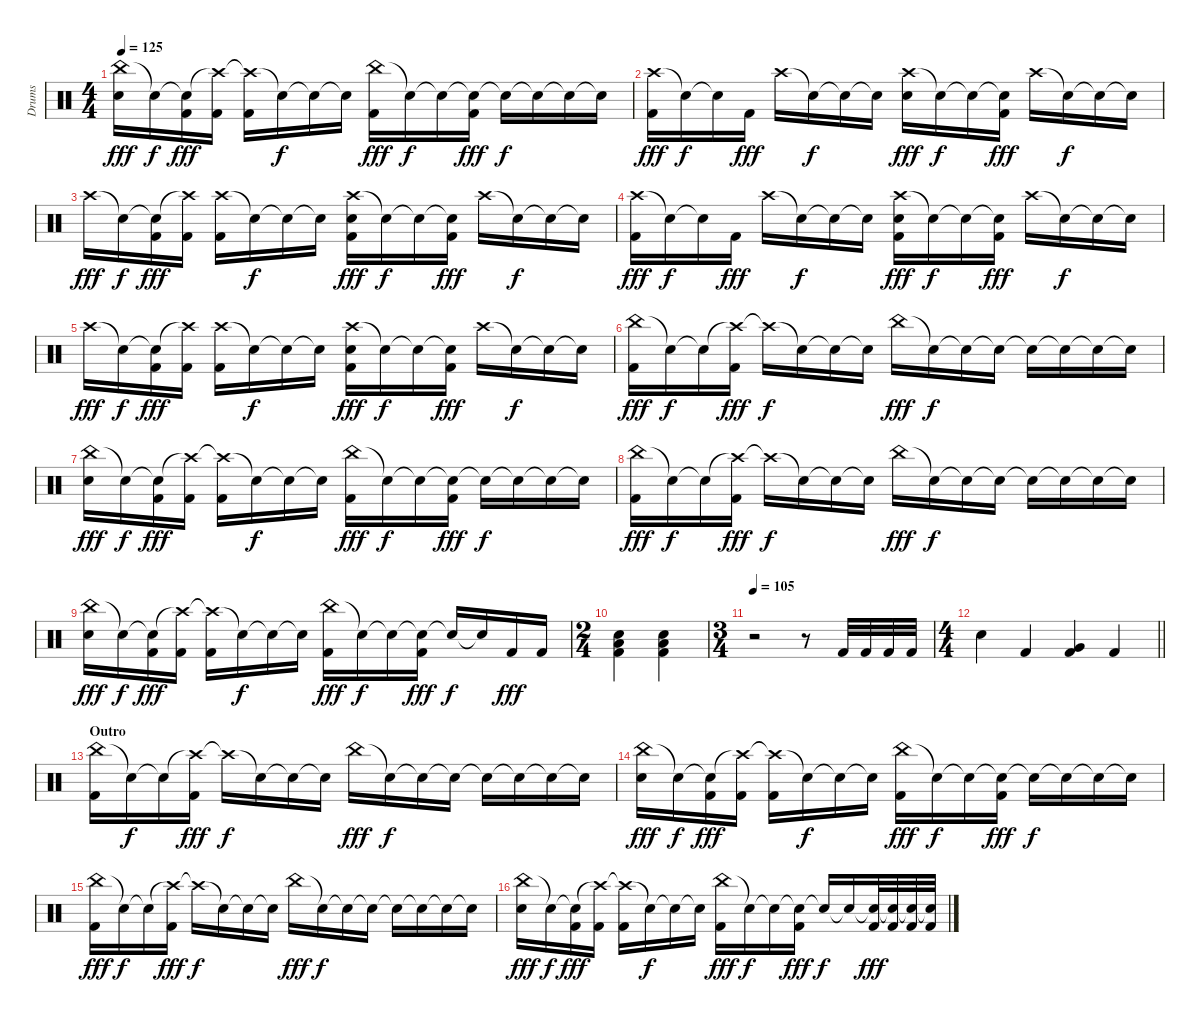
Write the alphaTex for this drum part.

\track ("Drums" "Drums") {instrument percussion}
\staff {score}
\articulation defaults
\ts (4 4)
\tempo 125
\clef neutral
\ks c
("China (hit)" "Electric Snare (hit)").16{dy fff} "Snare (hit)"{t}.16{dy f} ("Snare (hit)"{t} "Kick (hit) 2").16{dy fff} ("Crash high (hit)"{t} "Kick (hit) 2").16 ("Crash high (hit)"{t} "Kick (hit) 2").16 "Snare (hit)"{t}.16{dy f} "Snare (hit)"{t}.16 "Snare (hit)"{t}.16 ("China (hit)" "Kick (hit) 2").16{dy fff} "Snare (hit)"{t}.16{dy f} "Snare (hit)"{t}.16 ("Snare (hit)"{t} "Kick (hit) 2").16{dy fff} "Snare (hit)"{t}.16{dy f} "Snare (hit)"{t}.16 "Snare (hit)"{t}.16 "Snare (hit)"{t}.16 |
("Crash high (hit)" "Kick (hit) 2").16{dy fff} "Snare (hit)"{t}.16{dy f} "Snare (hit)"{t}.16 "Kick (hit) 2".16{dy fff} "Crash high (hit)".16 "Snare (hit)"{t}.16{dy f} "Snare (hit)"{t}.16 "Snare (hit)"{t}.16 ("Crash high (hit)" "Electric Snare (hit)").16{dy fff} "Snare (hit)"{t}.16{dy f} "Snare (hit)"{t}.16 ("Snare (hit)"{t} "Kick (hit) 2").16{dy fff} "Crash high (hit)".16 "Snare (hit)"{t}.16{dy f} "Snare (hit)"{t}.16 "Snare (hit)"{t}.16 |
"Crash high (hit)".16{dy fff} "Snare (hit)"{t}.16{dy f} ("Snare (hit)"{t} "Kick (hit) 2").16{dy fff} ("Crash high (hit)"{t} "Kick (hit) 2").16 ("Crash high (hit)" "Kick (hit) 2").16 "Snare (hit)"{t}.16{dy f} "Snare (hit)"{t}.16 "Snare (hit)"{t}.16 ("Crash high (hit)" "Electric Snare (hit)" "Kick (hit) 2").16{dy fff} "Snare (hit)"{t}.16{dy f} "Snare (hit)"{t}.16 ("Snare (hit)"{t} "Kick (hit) 2").16{dy fff} "Crash high (hit)".16 "Snare (hit)"{t}.16{dy f} "Snare (hit)"{t}.16 "Snare (hit)"{t}.16 |
("Crash high (hit)" "Kick (hit) 2").16{dy fff} "Snare (hit)"{t}.16{dy f} "Snare (hit)"{t}.16 "Kick (hit) 2".16{dy fff} "Crash high (hit)".16 "Snare (hit)"{t}.16{dy f} "Snare (hit)"{t}.16 "Snare (hit)"{t}.16 ("Crash high (hit)" "Electric Snare (hit)" "Kick (hit) 2").16{dy fff} "Snare (hit)"{t}.16{dy f} "Snare (hit)"{t}.16 ("Snare (hit)"{t} "Kick (hit) 2").16{dy fff} "Crash high (hit)".16 "Snare (hit)"{t}.16{dy f} "Snare (hit)"{t}.16 "Snare (hit)"{t}.16 |
"Crash high (hit)".16{dy fff} "Snare (hit)"{t}.16{dy f} ("Snare (hit)"{t} "Kick (hit) 2").16{dy fff} ("Crash high (hit)"{t} "Kick (hit) 2").16 ("Crash high (hit)" "Kick (hit) 2").16 "Snare (hit)"{t}.16{dy f} "Snare (hit)"{t}.16 "Snare (hit)"{t}.16 ("Crash high (hit)" "Electric Snare (hit)" "Kick (hit) 2").16{dy fff} "Snare (hit)"{t}.16{dy f} "Snare (hit)"{t}.16 ("Snare (hit)"{t} "Kick (hit) 2").16{dy fff} "Crash high (hit)".16 "Snare (hit)"{t}.16{dy f} "Snare (hit)"{t}.16 "Snare (hit)"{t}.16 |
("China (hit)" "Kick (hit) 2").16{dy fff} "Snare (hit)"{t}.16{dy f} "Snare (hit)"{t}.16 ("Crash high (hit)"{t} "Kick (hit) 2").16{dy fff} "Crash high (hit)"{t}.16{dy f} "Snare (hit)"{t}.16 "Snare (hit)"{t}.16 "Snare (hit)"{t}.16 "China (hit)".16{dy fff} "Snare (hit)"{t}.16{dy f} "Snare (hit)"{t}.16 "Snare (hit)"{t}.16 "Snare (hit)"{t}.16 "Snare (hit)"{t}.16 "Snare (hit)"{t}.16 "Snare (hit)"{t}.16 |
("China (hit)" "Electric Snare (hit)").16{dy fff} "Snare (hit)"{t}.16{dy f} ("Snare (hit)"{t} "Kick (hit) 2").16{dy fff} ("Crash high (hit)"{t} "Kick (hit) 2").16 ("Crash high (hit)"{t} "Kick (hit) 2").16 "Snare (hit)"{t}.16{dy f} "Snare (hit)"{t}.16 "Snare (hit)"{t}.16 ("China (hit)" "Kick (hit) 2").16{dy fff} "Snare (hit)"{t}.16{dy f} "Snare (hit)"{t}.16 ("Snare (hit)"{t} "Kick (hit) 2").16{dy fff} "Snare (hit)"{t}.16{dy f} "Snare (hit)"{t}.16 "Snare (hit)"{t}.16 "Snare (hit)"{t}.16 |
("China (hit)" "Kick (hit) 2").16{dy fff} "Snare (hit)"{t}.16{dy f} "Snare (hit)"{t}.16 ("Crash high (hit)"{t} "Kick (hit) 2").16{dy fff} "Crash high (hit)"{t}.16{dy f} "Snare (hit)"{t}.16 "Snare (hit)"{t}.16 "Snare (hit)"{t}.16 "China (hit)".16{dy fff} "Snare (hit)"{t}.16{dy f} "Snare (hit)"{t}.16 "Snare (hit)"{t}.16 "Snare (hit)"{t}.16 "Snare (hit)"{t}.16 "Snare (hit)"{t}.16 "Snare (hit)"{t}.16 |
("China (hit)" "Electric Snare (hit)").16{dy fff} "Snare (hit)"{t}.16{dy f} ("Snare (hit)"{t} "Kick (hit) 2").16{dy fff} ("Crash high (hit)"{t} "Kick (hit) 2").16 ("Crash high (hit)"{t} "Kick (hit) 2").16 "Snare (hit)"{t}.16{dy f} "Snare (hit)"{t}.16 "Snare (hit)"{t}.16 ("China (hit)" "Kick (hit) 2").16{dy fff} "Snare (hit)"{t}.16{dy f} "Snare (hit)"{t}.16 ("Snare (hit)"{t} "Kick (hit) 2").16{dy fff} "Snare (hit)"{t}.16{dy f} "Snare (hit)"{t}.16 "Kick (hit) 2".16{dy fff} "Kick (hit) 2".16 |
\ts (2 4)
("Low Floor Tom (hit)" "Electric Snare (hit)" "Kick (hit) 2").4 ("Low Floor Tom (hit)" "Electric Snare (hit)" "Kick (hit) 2").4 |
\ts (3 4)
\tempo 105
r.2 r.8 "Kick (hit) 2".32 "Kick (hit) 2".32 "Kick (hit) 2".32 "Kick (hit) 2".32 |
\ts (4 4)
\barLineRight lightlight "Electric Snare (hit)".4 "Kick (hit) 2".4
("Very Low Tom (hit)" "Kick (hit) 2").4 "Kick (hit) 2".4 |
\section ("" "Outro")
("China (hit)" "Kick (hit) 2").16 "Snare (hit)"{t}.16{dy f} "Snare (hit)"{t}.16 ("Crash high (hit)"{t} "Kick (hit) 2").16{dy fff} "Crash high (hit)"{t}.16{dy f} "Snare (hit)"{t}.16 "Snare (hit)"{t}.16 "Snare (hit)"{t}.16 "China (hit)".16{dy fff} "Snare (hit)"{t}.16{dy f} "Snare (hit)"{t}.16 "Snare (hit)"{t}.16 "Snare (hit)"{t}.16 "Snare (hit)"{t}.16 "Snare (hit)"{t}.16 "Snare (hit)"{t}.16 |
("China (hit)" "Electric Snare (hit)").16{dy fff} "Snare (hit)"{t}.16{dy f} ("Snare (hit)"{t} "Kick (hit) 2").16{dy fff} ("Crash high (hit)"{t} "Kick (hit) 2").16 ("Crash high (hit)"{t} "Kick (hit) 2").16 "Snare (hit)"{t}.16{dy f} "Snare (hit)"{t}.16 "Snare (hit)"{t}.16 ("China (hit)" "Kick (hit) 2").16{dy fff} "Snare (hit)"{t}.16{dy f} "Snare (hit)"{t}.16 ("Snare (hit)"{t} "Kick (hit) 2").16{dy fff} "Snare (hit)"{t}.16{dy f} "Snare (hit)"{t}.16 "Snare (hit)"{t}.16 "Snare (hit)"{t}.16 |
("China (hit)" "Kick (hit) 2").16{dy fff} "Snare (hit)"{t}.16{dy f} "Snare (hit)"{t}.16 ("Crash high (hit)"{t} "Kick (hit) 2").16{dy fff} "Crash high (hit)"{t}.16{dy f} "Snare (hit)"{t}.16 "Snare (hit)"{t}.16 "Snare (hit)"{t}.16 "China (hit)".16{dy fff} "Snare (hit)"{t}.16{dy f} "Snare (hit)"{t}.16 "Snare (hit)"{t}.16 "Snare (hit)"{t}.16 "Snare (hit)"{t}.16 "Snare (hit)"{t}.16 "Snare (hit)"{t}.16 |
("China (hit)" "Electric Snare (hit)").16{dy fff} "Snare (hit)"{t}.16{dy f} ("Snare (hit)"{t} "Kick (hit) 2").16{dy fff} ("Crash high (hit)"{t} "Kick (hit) 2").16 ("Crash high (hit)"{t} "Kick (hit) 2").16 "Snare (hit)"{t}.16{dy f} "Snare (hit)"{t}.16 "Snare (hit)"{t}.16 ("China (hit)" "Kick (hit) 2").16{dy fff} "Snare (hit)"{t}.16{dy f} "Snare (hit)"{t}.16 ("Snare (hit)"{t} "Kick (hit) 2").16{dy fff} "Snare (hit)"{t}.16{dy f} "Snare (hit)"{t}.16 ("Snare (hit)"{t} "Kick (hit) 2").32{dy fff} ("Snare (hit)"{t} "Kick (hit) 2").32 ("Snare (hit)"{t} "Kick (hit) 2").32 ("Snare (hit)"{t} "Kick (hit) 2").32
